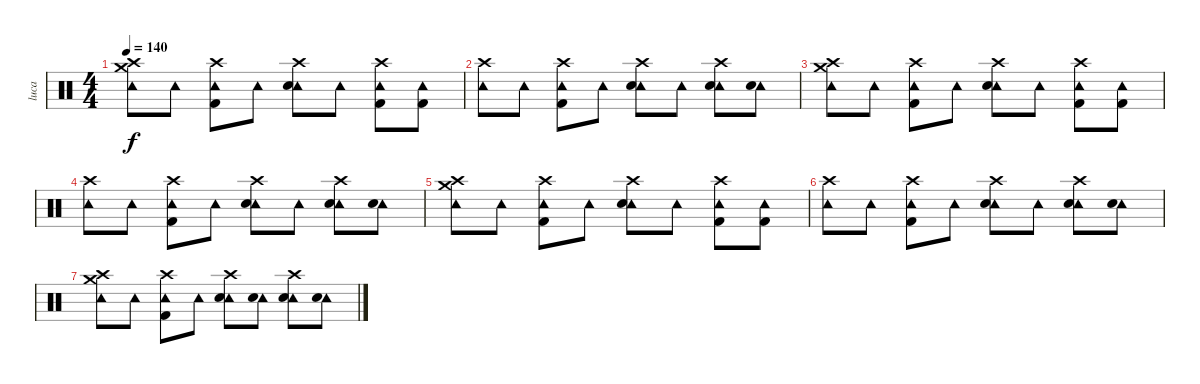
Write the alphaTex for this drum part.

\track ("luca" "luca") {instrument percussion}
\staff {score}
\articulation defaults
\ts (4 4)
\tempo 140
\clef neutral
\ks c
("Crash medium (hit)" "Crash high (hit)" "Tambourine (hit)").8{dy f} "Tambourine (hit)".8 ("Tambourine (hit)" "Crash high (hit)" "Kick (hit) 2").8 "Tambourine (hit)".8 ("Tambourine (hit)" "Crash high (hit)" "Snare (hit) 2").8 "Tambourine (hit)".8 ("Tambourine (hit)" "Crash high (hit)" "Kick (hit) 2").8 ("Tambourine (hit)" "Kick (hit) 2").8 |
("Tambourine (hit)" "Crash high (hit)").8 "Tambourine (hit)".8 ("Tambourine (hit)" "Crash high (hit)" "Kick (hit) 2").8 "Tambourine (hit)".8 ("Tambourine (hit)" "Crash high (hit)" "Snare (hit) 2").8 "Tambourine (hit)".8 ("Tambourine (hit)" "Crash high (hit)" "Snare (hit) 2").8 ("Tambourine (hit)" "Snare (hit) 2").8 |
("Crash medium (hit)" "Crash high (hit)" "Tambourine (hit)").8 "Tambourine (hit)".8 ("Tambourine (hit)" "Crash high (hit)" "Kick (hit) 2").8 "Tambourine (hit)".8 ("Tambourine (hit)" "Crash high (hit)" "Snare (hit) 2").8 "Tambourine (hit)".8 ("Tambourine (hit)" "Crash high (hit)" "Kick (hit) 2").8 ("Tambourine (hit)" "Kick (hit) 2").8 |
("Tambourine (hit)" "Crash high (hit)").8 "Tambourine (hit)".8 ("Tambourine (hit)" "Crash high (hit)" "Kick (hit) 2").8 "Tambourine (hit)".8 ("Tambourine (hit)" "Crash high (hit)" "Snare (hit) 2").8 "Tambourine (hit)".8 ("Tambourine (hit)" "Crash high (hit)" "Snare (hit) 2").8 ("Tambourine (hit)" "Snare (hit) 2").8 |
("Crash medium (hit)" "Crash high (hit)" "Tambourine (hit)").8 "Tambourine (hit)".8 ("Tambourine (hit)" "Crash high (hit)" "Kick (hit) 2").8 "Tambourine (hit)".8 ("Tambourine (hit)" "Crash high (hit)" "Snare (hit) 2").8 "Tambourine (hit)".8 ("Tambourine (hit)" "Crash high (hit)" "Kick (hit) 2").8 ("Tambourine (hit)" "Kick (hit) 2").8 |
("Tambourine (hit)" "Crash high (hit)").8 "Tambourine (hit)".8 ("Tambourine (hit)" "Crash high (hit)" "Kick (hit) 2").8 "Tambourine (hit)".8 ("Tambourine (hit)" "Crash high (hit)" "Snare (hit) 2").8 "Tambourine (hit)".8 ("Tambourine (hit)" "Crash high (hit)" "Snare (hit) 2").8 ("Tambourine (hit)" "Snare (hit) 2").8 |
("Crash medium (hit)" "Crash high (hit)" "Tambourine (hit)").8 "Tambourine (hit)".8 ("Tambourine (hit)" "Crash high (hit)" "Kick (hit) 2").8 "Tambourine (hit)".8 ("Tambourine (hit)" "Crash high (hit)" "Snare (hit) 2").8 ("Tambourine (hit)" "Snare (hit) 2").8 ("Tambourine (hit)" "Crash high (hit)" "Snare (hit) 2").8 ("Tambourine (hit)" "Snare (hit) 2").8
